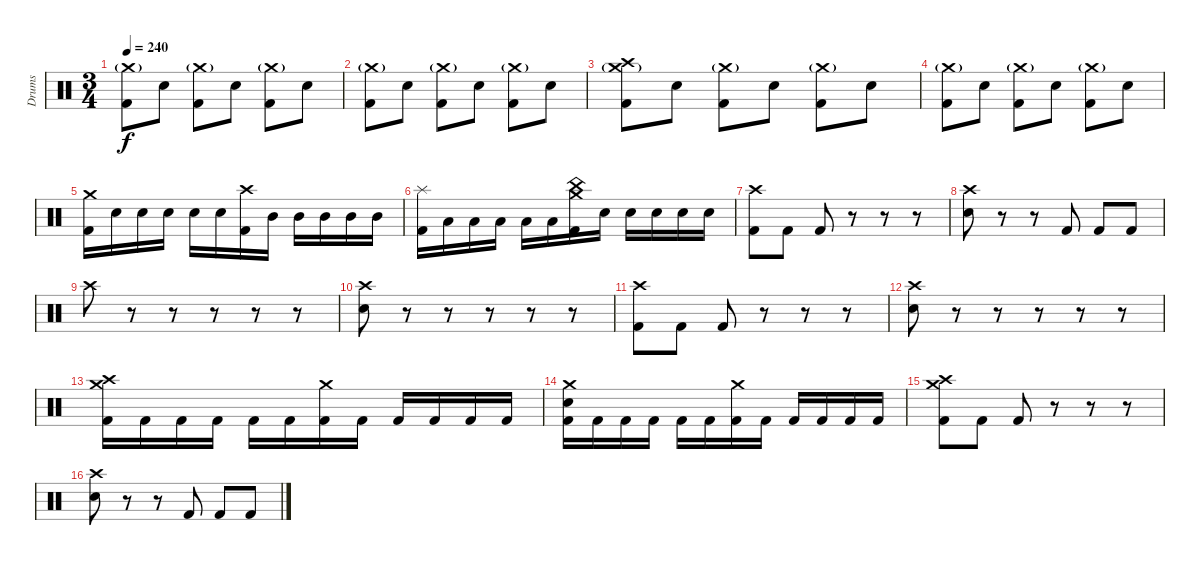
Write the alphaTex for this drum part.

\track ("Drums" "Drums") {instrument percussion}
\staff {score}
\articulation defaults
\ts (3 4)
\tempo 240
\clef neutral
\ks c
("Crash medium (hit)"{g} "Kick (hit) 2").8{dy f} "Electric Snare (hit)".8 ("Crash medium (hit)"{g} "Kick (hit) 2").8 "Electric Snare (hit)".8 ("Crash medium (hit)"{g} "Kick (hit) 2").8 "Electric Snare (hit)".8 |
("Crash medium (hit)"{g} "Kick (hit) 2").8 "Electric Snare (hit)".8 ("Crash medium (hit)"{g} "Kick (hit) 2").8 "Electric Snare (hit)".8 ("Crash medium (hit)"{g} "Kick (hit) 2").8 "Electric Snare (hit)".8 |
("Crash high (hit)" "Crash medium (hit)"{g} "Kick (hit) 2").8 "Electric Snare (hit)".8 ("Crash medium (hit)"{g} "Kick (hit) 2").8 "Electric Snare (hit)".8 ("Crash medium (hit)"{g} "Kick (hit) 2").8 "Electric Snare (hit)".8 |
("Crash medium (hit)"{g} "Kick (hit) 2").8 "Electric Snare (hit)".8 ("Crash medium (hit)"{g} "Kick (hit) 2").8 "Electric Snare (hit)".8 ("Crash medium (hit)"{g} "Kick (hit) 2").8 "Electric Snare (hit)".8 |
("Crash medium (hit)" "Kick (hit) 2").16 "Electric Snare (hit)".16 "Electric Snare (hit)".16 "Electric Snare (hit)".16 "Electric Snare (hit)".16 "Electric Snare (hit)".16 ("Crash high (hit)" "Kick (hit) 2").16 "Mid Tom (hit)".16 "Mid Tom (hit)".16 "Mid Tom (hit)".16 "Mid Tom (hit)".16 "Mid Tom (hit)".16 |
("Splash (hit)" "Kick (hit) 2").16 "Low Tom (hit)".16 "Low Tom (hit)".16 "Low Tom (hit)".16 "Low Tom (hit)".16 "Low Tom (hit)".16 ("China (hit)" "Crash medium (hit)" "Kick (hit) 2").16 "Electric Snare (hit)".16 "Electric Snare (hit)".16 "Electric Snare (hit)".16 "Electric Snare (hit)".16 "Electric Snare (hit)".16 |
("Crash high (hit)" "Kick (hit) 2").8 "Kick (hit) 2".8 "Kick (hit) 2".8 r.8 r.8 r.8 |
("Crash high (hit)" "Electric Snare (hit)").8 r.8 r.8 "Kick (hit) 2".8 "Kick (hit) 2".8 "Kick (hit) 2".8 |
"Crash high (hit)".8 r.8 r.8 r.8 r.8 r.8 |
("Crash high (hit)" "Electric Snare (hit)").8 r.8 r.8 r.8 r.8 r.8 |
("Crash high (hit)" "Kick (hit) 2").8 "Kick (hit) 2".8 "Kick (hit) 2".8 r.8 r.8 r.8 |
("Crash high (hit)" "Electric Snare (hit)").8 r.8 r.8 r.8 r.8 r.8 |
("Crash medium (hit)" "Crash high (hit)" "Kick (hit) 2").16 "Kick (hit) 2".16 "Kick (hit) 2".16 "Kick (hit) 2".16 "Kick (hit) 2".16 "Kick (hit) 2".16 ("Crash medium (hit)" "Kick (hit) 2").16 "Kick (hit) 2".16 "Kick (hit) 2".16 "Kick (hit) 2".16 "Kick (hit) 2".16 "Kick (hit) 2".16 |
("Crash medium (hit)" "Electric Snare (hit)" "Kick (hit) 2").16 "Kick (hit) 2".16 "Kick (hit) 2".16 "Kick (hit) 2".16 "Kick (hit) 2".16 "Kick (hit) 2".16 ("Crash medium (hit)" "Kick (hit) 2").16 "Kick (hit) 2".16 "Kick (hit) 2".16 "Kick (hit) 2".16 "Kick (hit) 2".16 "Kick (hit) 2".16 |
("Crash medium (hit)" "Crash high (hit)" "Kick (hit) 2").8 "Kick (hit) 2".8 "Kick (hit) 2".8 r.8 r.8 r.8 |
("Crash high (hit)" "Electric Snare (hit)").8 r.8 r.8 "Kick (hit) 2".8 "Kick (hit) 2".8 "Kick (hit) 2".8
